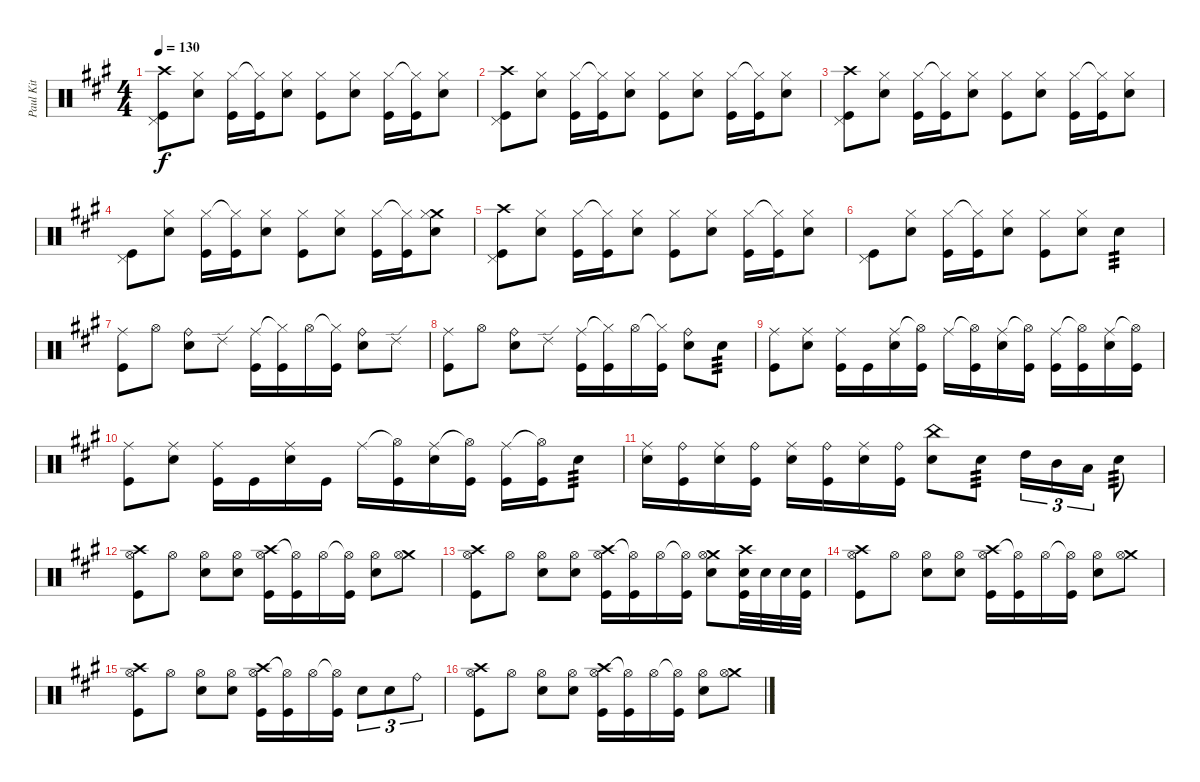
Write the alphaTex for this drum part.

\track ("Paul Kit" "Paul Kit") {instrument percussion}
\staff {score}
\articulation defaults
\ts (4 4)
\tempo 130
\clef neutral
\ks a
("Crash high (hit)" "Pedal Hi-Hat (hit)" "Kick (hit)").8{dy f} ("Hi-Hat (closed)" "Snare (hit) 2").8 ("Hi-Hat (closed)" "Kick (hit)").16 ("Hi-Hat (closed)"{t} "Kick (hit)").16 ("Hi-Hat (closed)" "Snare (hit) 2").8 ("Hi-Hat (closed)" "Kick (hit)").8 ("Hi-Hat (closed)" "Snare (hit) 2").8 ("Hi-Hat (closed)" "Kick (hit)").16 ("Hi-Hat (closed)"{t} "Kick (hit)").16 ("Hi-Hat (closed)" "Snare (hit) 2").8 |
("Crash high (hit)" "Pedal Hi-Hat (hit)" "Kick (hit)").8 ("Hi-Hat (closed)" "Snare (hit) 2").8 ("Hi-Hat (closed)" "Kick (hit)").16 ("Hi-Hat (closed)"{t} "Kick (hit)").16 ("Hi-Hat (closed)" "Snare (hit) 2").8 ("Hi-Hat (closed)" "Kick (hit)").8 ("Hi-Hat (closed)" "Snare (hit) 2").8 ("Hi-Hat (closed)" "Kick (hit)").16 ("Hi-Hat (closed)"{t} "Kick (hit)").16 ("Hi-Hat (closed)" "Snare (hit) 2").8 |
("Crash high (hit)" "Pedal Hi-Hat (hit)" "Kick (hit)").8 ("Hi-Hat (closed)" "Snare (hit) 2").8 ("Hi-Hat (closed)" "Kick (hit)").16 ("Hi-Hat (closed)"{t} "Kick (hit)").16 ("Hi-Hat (closed)" "Snare (hit) 2").8 ("Hi-Hat (closed)" "Kick (hit)").8 ("Hi-Hat (closed)" "Snare (hit) 2").8 ("Hi-Hat (closed)" "Kick (hit)").16 ("Hi-Hat (closed)"{t} "Kick (hit)").16 ("Hi-Hat (closed)" "Snare (hit) 2").8 |
("Pedal Hi-Hat (hit)" "Kick (hit)").8 ("Hi-Hat (closed)" "Snare (hit) 2").8 ("Hi-Hat (closed)" "Kick (hit)").16 ("Hi-Hat (closed)"{t} "Kick (hit)").16 ("Hi-Hat (closed)" "Snare (hit) 2").8 ("Hi-Hat (closed)" "Kick (hit)").8 ("Hi-Hat (closed)" "Snare (hit) 2").8 ("Hi-Hat (closed)" "Kick (hit)").16 ("Hi-Hat (closed)"{t} "Kick (hit)").16 ("Crash medium (hit)" "Hi-Hat (closed)" "Snare (hit) 2").8 |
("Crash high (hit)" "Pedal Hi-Hat (hit)" "Kick (hit)").8 ("Hi-Hat (closed)" "Snare (hit) 2").8 ("Hi-Hat (closed)" "Kick (hit)").16 ("Hi-Hat (closed)"{t} "Kick (hit)").16 ("Hi-Hat (closed)" "Snare (hit) 2").8 ("Hi-Hat (closed)" "Kick (hit)").8 ("Hi-Hat (closed)" "Snare (hit) 2").8 ("Hi-Hat (closed)" "Kick (hit)").16 ("Hi-Hat (closed)"{t} "Kick (hit)").16 ("Hi-Hat (closed)" "Snare (hit) 2").8 |
("Pedal Hi-Hat (hit)" "Kick (hit)").8 ("Hi-Hat (closed)" "Snare (hit) 2").8 ("Hi-Hat (closed)" "Kick (hit)").16 ("Hi-Hat (closed)"{t} "Kick (hit)").16 ("Hi-Hat (closed)" "Snare (hit) 2").8 ("Hi-Hat (closed)" "Kick (hit)").8 ("Hi-Hat (closed)" "Snare (hit) 2").8 "Snare (hit) 2".4{tp 3} |
("Ride (middle)" "Kick (hit)").8 "Hi-Hat (open)".8 ("Ride (bell)" "Snare (hit) 2").8 "Ride (edge) 2".8 ("Ride (middle)" "Kick (hit)").16 ("Hi-Hat (closed)"{t} "Kick (hit)").16 "Hi-Hat (open)".16 ("Hi-Hat (closed)"{t} "Kick (hit)").16 ("Ride (bell)" "Snare (hit) 2").8 "Ride (edge) 2".8 |
("Ride (middle)" "Kick (hit)").8 "Hi-Hat (open)".8 ("Ride (bell)" "Snare (hit) 2").8 "Ride (edge) 2".8 ("Ride (middle)" "Kick (hit)").16 ("Hi-Hat (closed)"{t} "Kick (hit)").16 "Hi-Hat (open)".16 ("Hi-Hat (closed)"{t} "Kick (hit)").16 ("Ride (bell)" "Snare (hit) 2").8 "Snare (hit) 2".8{tp 3} |
("Ride (middle)" "Kick (hit)").8 ("Ride (middle)" "Snare (hit) 2").8 ("Ride (middle)" "Kick (hit)").16 "Kick (hit)".16 ("Ride (middle)" "Snare (hit) 2").16 ("Hi-Hat (open)"{t} "Kick (hit)").16 "Ride (middle)".16 ("Hi-Hat (open)"{t} "Kick (hit)").16 ("Ride (middle)" "Snare (hit) 2").16 ("Hi-Hat (open)"{t} "Kick (hit)").16 ("Ride (middle)" "Kick (hit)").16 ("Hi-Hat (open)"{t} "Kick (hit)").16 ("Ride (middle)" "Snare (hit) 2").16 ("Hi-Hat (open)"{t} "Kick (hit)").16 |
("Ride (middle)" "Kick (hit)").8 ("Ride (middle)" "Snare (hit) 2").8 ("Ride (middle)" "Kick (hit)").16 "Kick (hit)".16 ("Ride (middle)" "Snare (hit) 2").16 "Kick (hit)".16 "Ride (middle)".16 ("Hi-Hat (open)"{t} "Kick (hit)").16 ("Ride (middle)" "Snare (hit) 2").16 ("Hi-Hat (open)"{t} "Kick (hit)").16 ("Ride (middle)" "Kick (hit)").16 ("Hi-Hat (open)"{t} "Kick (hit)").16 "Snare (hit) 2".8{tp 3} |
("Ride (middle)" "Snare (hit) 2").16 ("Ride (bell)" "Kick (hit)").16 ("Ride (middle)" "Snare (hit) 2").16 ("Ride (bell)" "Kick (hit)").16 ("Ride (middle)" "Snare (hit) 2").16 ("Ride (bell)" "Kick (hit)").16 ("Ride (middle)" "Snare (hit) 2").16 ("Ride (bell)" "Kick (hit)").16 ("China (hit)" "Snare (hit) 2").8 "Snare (hit) 2".8{tp 3} "High Tom (hit)".16{tu (3 2)} "Mid Tom (hit)".16{tu (3 2)} "Low Tom (hit)".16{tu (3 2)} "Snare (hit) 2".8{tp 3} |
("Crash high (hit)" "Hi-Hat (open)" "Kick (hit)").8 "Hi-Hat (open)".8 ("Hi-Hat (open)" "Snare (hit) 2").8 ("Hi-Hat (open)" "Snare (hit) 2").8 ("Crash high (hit)" "Hi-Hat (open)" "Kick (hit)").16 ("Hi-Hat (open)"{t} "Kick (hit)").16 "Hi-Hat (open)".16 ("Hi-Hat (open)"{t} "Kick (hit)").16 ("Hi-Hat (open)" "Snare (hit) 2").8 ("Crash medium (hit)" "Hi-Hat (open)").8 |
("Crash high (hit)" "Hi-Hat (open)" "Kick (hit)").8 "Hi-Hat (open)".8 ("Hi-Hat (open)" "Snare (hit) 2").8 ("Hi-Hat (open)" "Snare (hit) 2").8 ("Crash high (hit)" "Hi-Hat (open)" "Kick (hit)").16 ("Hi-Hat (open)"{t} "Kick (hit)").16 "Hi-Hat (open)".16 ("Hi-Hat (open)"{t} "Kick (hit)").16 ("Crash medium (hit)" "Hi-Hat (open)" "Snare (hit) 2").8 ("Crash high (hit)" "Snare (hit) 2" "Kick (hit)").32 "Snare (hit) 2".32 "Snare (hit) 2".32 ("Snare (hit) 2" "Kick (hit)").32 |
("Crash high (hit)" "Hi-Hat (open)" "Kick (hit)").8 "Hi-Hat (open)".8 ("Hi-Hat (open)" "Snare (hit) 2").8 ("Hi-Hat (open)" "Snare (hit) 2").8 ("Crash high (hit)" "Hi-Hat (open)" "Kick (hit)").16 ("Hi-Hat (open)"{t} "Kick (hit)").16 "Hi-Hat (open)".16 ("Hi-Hat (open)"{t} "Kick (hit)").16 ("Hi-Hat (open)" "Snare (hit) 2").8 ("Crash medium (hit)" "Hi-Hat (open)").8 |
("Crash high (hit)" "Hi-Hat (open)" "Kick (hit)").8 "Hi-Hat (open)".8 ("Hi-Hat (open)" "Snare (hit) 2").8 ("Hi-Hat (open)" "Snare (hit) 2").8 ("Crash high (hit)" "Hi-Hat (open)" "Kick (hit)").16 ("Hi-Hat (open)"{t} "Kick (hit)").16 "Hi-Hat (open)".16 ("Hi-Hat (open)"{t} "Kick (hit)").16 "Snare (hit) 2".8{tu (3 2)} "Snare (hit) 2".8{tu (3 2)} "Ride (bell)".8{tu (3 2)} |
("Crash high (hit)" "Hi-Hat (open)" "Kick (hit)").8 "Hi-Hat (open)".8 ("Hi-Hat (open)" "Snare (hit) 2").8 ("Hi-Hat (open)" "Snare (hit) 2").8 ("Crash high (hit)" "Hi-Hat (open)" "Kick (hit)").16 ("Hi-Hat (open)"{t} "Kick (hit)").16 "Hi-Hat (open)".16 ("Hi-Hat (open)"{t} "Kick (hit)").16 ("Hi-Hat (open)" "Snare (hit) 2").8 ("Crash medium (hit)" "Hi-Hat (open)").8
